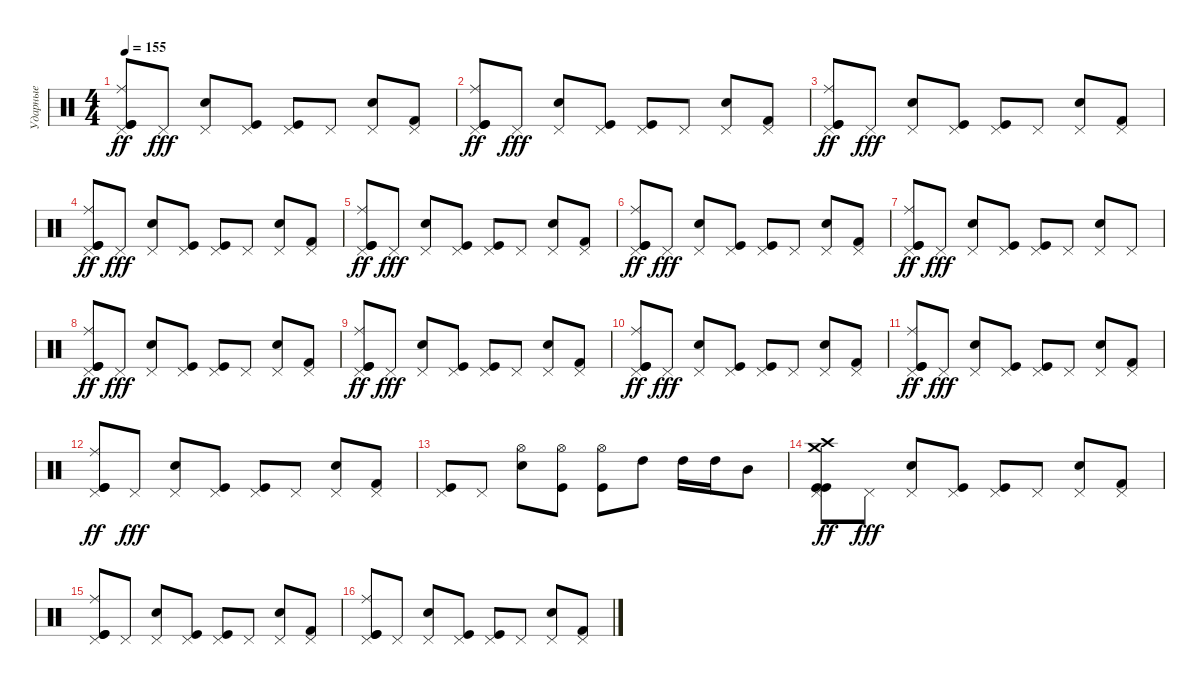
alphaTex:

\track ("Ударные" "Ударные") {instrument percussion}
\staff
\articulation defaults
\ts (4 4)
\tempo 155
\clef neutral
\ks c
("Kick (hit)" "Pedal Hi-Hat (hit)" "Kick (hit)" "Ride (middle)").8{dy ff} "Pedal Hi-Hat (hit)".8{dy fff} ("Pedal Hi-Hat (hit)" "Snare (hit) 2").8 ("Pedal Hi-Hat (hit)" "Kick (hit)").8 ("Pedal Hi-Hat (hit)" "Kick (hit)").8 "Pedal Hi-Hat (hit)".8 ("Snare (hit) 2" "Pedal Hi-Hat (hit)").8 ("Kick (hit) 2" "Pedal Hi-Hat (hit)").8 |
("Kick (hit)" "Pedal Hi-Hat (hit)" "Kick (hit)" "Ride (middle)").8{dy ff} "Pedal Hi-Hat (hit)".8{dy fff} ("Pedal Hi-Hat (hit)" "Snare (hit) 2").8 ("Pedal Hi-Hat (hit)" "Kick (hit)").8 ("Pedal Hi-Hat (hit)" "Kick (hit)").8 "Pedal Hi-Hat (hit)".8 ("Snare (hit) 2" "Pedal Hi-Hat (hit)").8 ("Kick (hit) 2" "Pedal Hi-Hat (hit)").8 |
("Kick (hit)" "Pedal Hi-Hat (hit)" "Kick (hit)" "Ride (middle)").8{dy ff} "Pedal Hi-Hat (hit)".8{dy fff} ("Pedal Hi-Hat (hit)" "Snare (hit) 2").8 ("Pedal Hi-Hat (hit)" "Kick (hit)").8 ("Pedal Hi-Hat (hit)" "Kick (hit)").8 "Pedal Hi-Hat (hit)".8 ("Snare (hit) 2" "Pedal Hi-Hat (hit)").8 ("Kick (hit) 2" "Pedal Hi-Hat (hit)").8 |
("Kick (hit)" "Pedal Hi-Hat (hit)" "Kick (hit)" "Ride (middle)").8{dy ff} "Pedal Hi-Hat (hit)".8{dy fff} ("Pedal Hi-Hat (hit)" "Snare (hit) 2").8 ("Pedal Hi-Hat (hit)" "Kick (hit)").8 ("Pedal Hi-Hat (hit)" "Kick (hit)").8 "Pedal Hi-Hat (hit)".8 ("Snare (hit) 2" "Pedal Hi-Hat (hit)").8 ("Kick (hit) 2" "Pedal Hi-Hat (hit)").8 |
("Kick (hit)" "Pedal Hi-Hat (hit)" "Kick (hit)" "Ride (middle)").8{dy ff} "Pedal Hi-Hat (hit)".8{dy fff} ("Pedal Hi-Hat (hit)" "Snare (hit) 2").8 ("Pedal Hi-Hat (hit)" "Kick (hit)").8 ("Pedal Hi-Hat (hit)" "Kick (hit)").8 "Pedal Hi-Hat (hit)".8 ("Snare (hit) 2" "Pedal Hi-Hat (hit)").8 ("Kick (hit) 2" "Pedal Hi-Hat (hit)").8 |
("Kick (hit)" "Pedal Hi-Hat (hit)" "Kick (hit)" "Ride (middle)").8{dy ff} "Pedal Hi-Hat (hit)".8{dy fff} ("Pedal Hi-Hat (hit)" "Snare (hit) 2").8 ("Pedal Hi-Hat (hit)" "Kick (hit)").8 ("Pedal Hi-Hat (hit)" "Kick (hit)").8 "Pedal Hi-Hat (hit)".8 ("Snare (hit) 2" "Pedal Hi-Hat (hit)").8 ("Kick (hit) 2" "Pedal Hi-Hat (hit)").8 |
("Kick (hit)" "Pedal Hi-Hat (hit)" "Kick (hit)" "Ride (middle)").8{dy ff} "Pedal Hi-Hat (hit)".8{dy fff} ("Pedal Hi-Hat (hit)" "Snare (hit) 2").8 ("Pedal Hi-Hat (hit)" "Kick (hit)").8 ("Pedal Hi-Hat (hit)" "Kick (hit)").8 "Pedal Hi-Hat (hit)".8 ("Snare (hit) 2" "Pedal Hi-Hat (hit)").8 "Pedal Hi-Hat (hit)".8 |
("Kick (hit)" "Pedal Hi-Hat (hit)" "Kick (hit)" "Ride (middle)").8{dy ff} "Pedal Hi-Hat (hit)".8{dy fff} ("Pedal Hi-Hat (hit)" "Snare (hit) 2").8 ("Pedal Hi-Hat (hit)" "Kick (hit)").8 ("Pedal Hi-Hat (hit)" "Kick (hit)").8 "Pedal Hi-Hat (hit)".8 ("Snare (hit) 2" "Pedal Hi-Hat (hit)").8 ("Kick (hit) 2" "Pedal Hi-Hat (hit)").8 |
("Kick (hit)" "Pedal Hi-Hat (hit)" "Kick (hit)" "Ride (middle)").8{dy ff} "Pedal Hi-Hat (hit)".8{dy fff} ("Pedal Hi-Hat (hit)" "Snare (hit) 2").8 ("Pedal Hi-Hat (hit)" "Kick (hit)").8 ("Pedal Hi-Hat (hit)" "Kick (hit)").8 "Pedal Hi-Hat (hit)".8 ("Snare (hit) 2" "Pedal Hi-Hat (hit)").8 ("Kick (hit) 2" "Pedal Hi-Hat (hit)").8 |
("Kick (hit)" "Pedal Hi-Hat (hit)" "Kick (hit)" "Ride (middle)").8{dy ff} "Pedal Hi-Hat (hit)".8{dy fff} ("Pedal Hi-Hat (hit)" "Snare (hit) 2").8 ("Pedal Hi-Hat (hit)" "Kick (hit)").8 ("Pedal Hi-Hat (hit)" "Kick (hit)").8 "Pedal Hi-Hat (hit)".8 ("Snare (hit) 2" "Pedal Hi-Hat (hit)").8 ("Kick (hit) 2" "Pedal Hi-Hat (hit)").8 |
("Kick (hit)" "Pedal Hi-Hat (hit)" "Kick (hit)" "Ride (middle)").8{dy ff} "Pedal Hi-Hat (hit)".8{dy fff} ("Pedal Hi-Hat (hit)" "Snare (hit) 2").8 ("Pedal Hi-Hat (hit)" "Kick (hit)").8 ("Pedal Hi-Hat (hit)" "Kick (hit)").8 "Pedal Hi-Hat (hit)".8 ("Snare (hit) 2" "Pedal Hi-Hat (hit)").8 ("Kick (hit) 2" "Pedal Hi-Hat (hit)").8 |
("Kick (hit)" "Pedal Hi-Hat (hit)" "Kick (hit)" "Ride (middle)").8{dy ff} "Pedal Hi-Hat (hit)".8{dy fff} ("Pedal Hi-Hat (hit)" "Snare (hit) 2").8 ("Pedal Hi-Hat (hit)" "Kick (hit)").8 ("Pedal Hi-Hat (hit)" "Kick (hit)").8 "Pedal Hi-Hat (hit)".8 ("Snare (hit) 2" "Pedal Hi-Hat (hit)").8 ("Kick (hit) 2" "Pedal Hi-Hat (hit)").8 |
("Kick (hit)" "Pedal Hi-Hat (hit)").8 "Pedal Hi-Hat (hit)".8 ("Snare (hit) 2" "Hi-Hat (open)").8 ("Kick (hit)" "Hi-Hat (open)").8 ("Kick (hit)" "Hi-Hat (open)").8 "High Tom (hit)".8 "High Tom (hit)".16 "High Tom (hit)".16 "Mid Tom (hit)".8 |
("Crash medium (hit)" "Kick (hit)" "Pedal Hi-Hat (hit)" "Kick (hit)" "Crash high (hit)").8{dy ff} "Pedal Hi-Hat (hit)".8{dy fff} ("Pedal Hi-Hat (hit)" "Snare (hit) 2").8 ("Pedal Hi-Hat (hit)" "Kick (hit)").8 ("Pedal Hi-Hat (hit)" "Kick (hit)").8 "Pedal Hi-Hat (hit)".8 ("Snare (hit) 2" "Pedal Hi-Hat (hit)").8 ("Kick (hit) 2" "Pedal Hi-Hat (hit)").8 |
("Kick (hit)" "Pedal Hi-Hat (hit)" "Kick (hit)" "Ride (middle)").8 "Pedal Hi-Hat (hit)".8 ("Pedal Hi-Hat (hit)" "Snare (hit) 2").8 ("Pedal Hi-Hat (hit)" "Kick (hit)").8 ("Pedal Hi-Hat (hit)" "Kick (hit)").8 "Pedal Hi-Hat (hit)".8 ("Snare (hit) 2" "Pedal Hi-Hat (hit)").8 ("Kick (hit) 2" "Pedal Hi-Hat (hit)").8 |
("Kick (hit)" "Pedal Hi-Hat (hit)" "Kick (hit)" "Ride (middle)").8 "Pedal Hi-Hat (hit)".8 ("Pedal Hi-Hat (hit)" "Snare (hit) 2").8 ("Pedal Hi-Hat (hit)" "Kick (hit)").8 ("Pedal Hi-Hat (hit)" "Kick (hit)").8 "Pedal Hi-Hat (hit)".8 ("Snare (hit) 2" "Pedal Hi-Hat (hit)").8 ("Kick (hit) 2" "Pedal Hi-Hat (hit)").8
